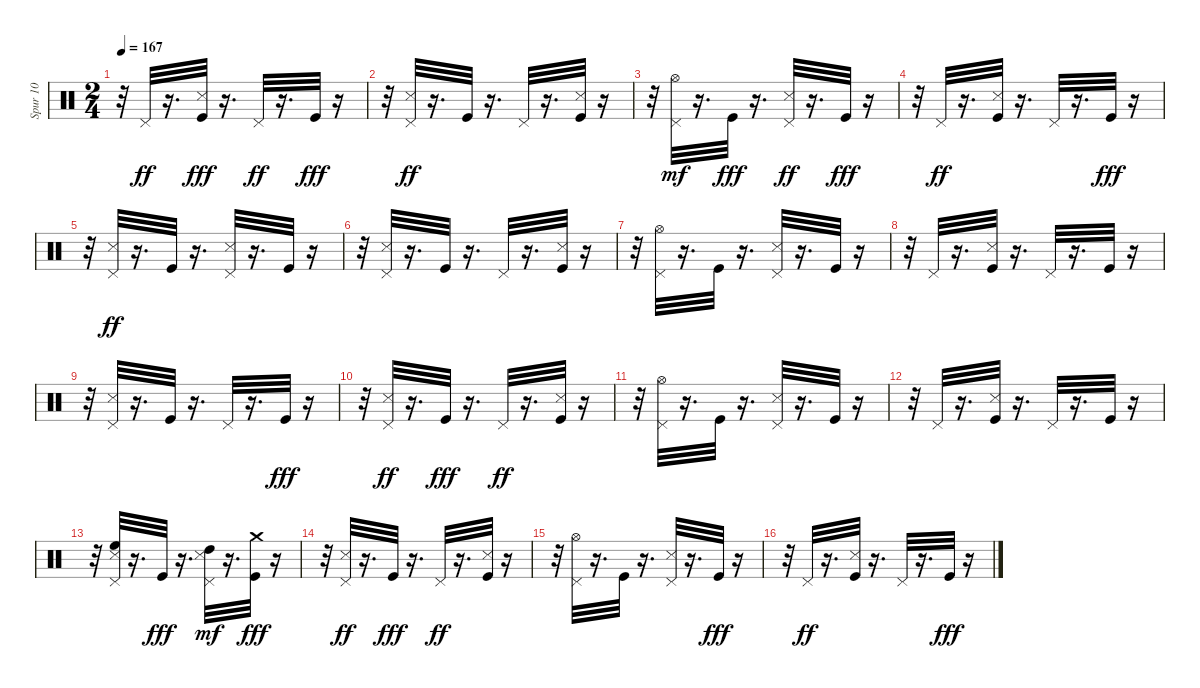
\track ("Spur 10" "Spur 10") {instrument percussion}
\staff {score}
\articulation defaults
\ts (2 4)
\tempo 167
\clef neutral
\ks c
r.32{dy ff} "Pedal Hi-Hat (hit)".32 r.16{d} ("Snare (side stick) 3" "Kick (hit)").32{dy fff} r.16{d} "Pedal Hi-Hat (hit)".32{dy ff} r.16{d} "Kick (hit)".32{dy fff} r.16 |
r.32 ("Pedal Hi-Hat (hit)" "Snare (side stick) 3").32{dy ff} r.16{d} "Kick (hit)".32 r.16{d} "Pedal Hi-Hat (hit)".32 r.16{d} ("Snare (side stick) 3" "Kick (hit)").32 r.16 |
r.32 ("Pedal Hi-Hat (hit)" "Hi-Hat (open)").32{dy mf} r.16{d} "Kick (hit)".32{dy fff} r.16{d} ("Snare (side stick) 3" "Pedal Hi-Hat (hit)").32{dy ff} r.16{d} "Kick (hit)".32{dy fff} r.16 |
r.32 "Pedal Hi-Hat (hit)".32{dy ff} r.16{d} ("Snare (side stick) 3" "Kick (hit)").32 r.16{d} "Pedal Hi-Hat (hit)".32 r.16{d} "Kick (hit)".32{dy fff} r.16 |
r.32 ("Pedal Hi-Hat (hit)" "Snare (side stick) 3").32{dy ff} r.16{d} "Kick (hit)".32 r.16{d} ("Snare (side stick) 3" "Pedal Hi-Hat (hit)").32 r.16{d} "Kick (hit)".32 r.16 |
r.32 ("Pedal Hi-Hat (hit)" "Snare (side stick) 3").32 r.16{d} "Kick (hit)".32 r.16{d} "Pedal Hi-Hat (hit)".32 r.16{d} ("Kick (hit)" "Snare (side stick) 3").32 r.16 |
r.32 ("Hi-Hat (open)" "Pedal Hi-Hat (hit)").32 r.16{d} "Kick (hit)".32 r.16{d} ("Snare (side stick) 3" "Pedal Hi-Hat (hit)").32 r.16{d} "Kick (hit)".32 r.16 |
r.32 "Pedal Hi-Hat (hit)".32 r.16{d} ("Snare (side stick) 3" "Kick (hit)").32 r.16{d} "Pedal Hi-Hat (hit)".32 r.16{d} "Kick (hit)".32 r.16 |
r.32 ("Snare (side stick) 3" "Pedal Hi-Hat (hit)").32 r.16{d} "Kick (hit)".32 r.16{d} "Pedal Hi-Hat (hit)".32 r.16{d} "Kick (hit)".32{dy fff} r.16 |
r.32 ("Pedal Hi-Hat (hit)" "Snare (side stick) 3").32{dy ff} r.16{d} "Kick (hit)".32{dy fff} r.16{d} "Pedal Hi-Hat (hit)".32{dy ff} r.16{d} ("Kick (hit)" "Snare (side stick) 3").32 r.16 |
r.32 ("Hi-Hat (open)" "Pedal Hi-Hat (hit)").32 r.16{d} "Kick (hit)".32 r.16{d} ("Snare (side stick) 3" "Pedal Hi-Hat (hit)").32 r.16{d} "Kick (hit)".32 r.16 |
r.32 "Pedal Hi-Hat (hit)".32 r.16{d} ("Snare (side stick) 3" "Kick (hit)").32 r.16{d} "Pedal Hi-Hat (hit)".32 r.16{d} "Kick (hit)".32 r.16 |
r.32 ("Snare (side stick) 3" "Pedal Hi-Hat (hit)" "High Floor Tom (hit)").32 r.16{d} "Kick (hit)".32{dy fff} r.16{d} ("Pedal Hi-Hat (hit)" "Snare (side stick) 3" "High Tom (hit)").32{dy mf} r.16{d} ("Crash medium (hit)" "Kick (hit)").32{dy fff} r.16 |
r.32 ("Pedal Hi-Hat (hit)" "Snare (side stick) 3").32{dy ff} r.16{d} "Kick (hit)".32{dy fff} r.16{d} "Pedal Hi-Hat (hit)".32{dy ff} r.16{d} ("Kick (hit)" "Snare (side stick) 3").32 r.16 |
r.32 ("Hi-Hat (open)" "Pedal Hi-Hat (hit)").32 r.16{d} "Kick (hit)".32 r.16{d} ("Snare (side stick) 3" "Pedal Hi-Hat (hit)").32 r.16{d} "Kick (hit)".32{dy fff} r.16 |
r.32 "Pedal Hi-Hat (hit)".32{dy ff} r.16{d} ("Kick (hit)" "Snare (side stick) 3").32 r.16{d} "Pedal Hi-Hat (hit)".32 r.16{d} "Kick (hit)".32{dy fff} r.16
